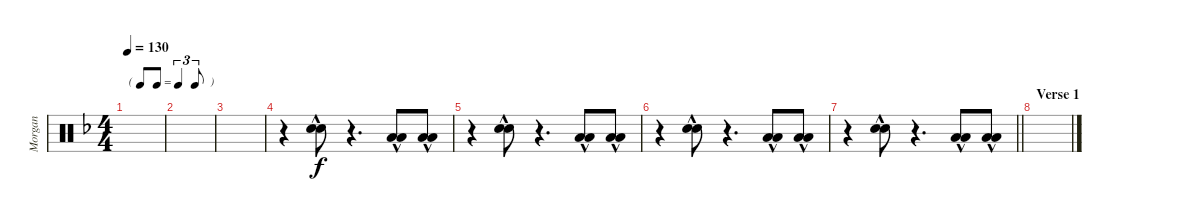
\track ("Morgan" "Morgan") {instrument percussion}
\staff {score}
\articulation defaults
\ts (4 4)
\tf triplet8th
\tempo 130
\clef neutral
\ks dminor
|
|
|
r.4 ("Snare (hit) 2"{hac} "Snare (hit) 2"{hac}).8 r.4{d} ("Low Tom (hit)"{hac} "Low Tom (hit)"{hac}).8 ("Low Tom (hit)"{hac} "Low Tom (hit)"{hac}).8 |
r.4 ("Snare (hit) 2"{hac} "Snare (hit) 2"{hac}).8 r.4{d} ("Low Tom (hit)"{hac} "Low Tom (hit)"{hac}).8 ("Low Tom (hit)"{hac} "Low Tom (hit)"{hac}).8 |
r.4 ("Snare (hit) 2"{hac} "Snare (hit) 2"{hac}).8 r.4{d} ("Low Tom (hit)"{hac} "Low Tom (hit)"{hac}).8 ("Low Tom (hit)"{hac} "Low Tom (hit)"{hac}).8 |
\barLineRight lightlight
r.4 ("Snare (hit) 2"{hac} "Snare (hit) 2"{hac}).8 r.4{d} ("Low Tom (hit)"{hac} "Low Tom (hit)"{hac}).8 ("Low Tom (hit)"{hac} "Low Tom (hit)"{hac}).8 |
\section ("" "Verse 1")
